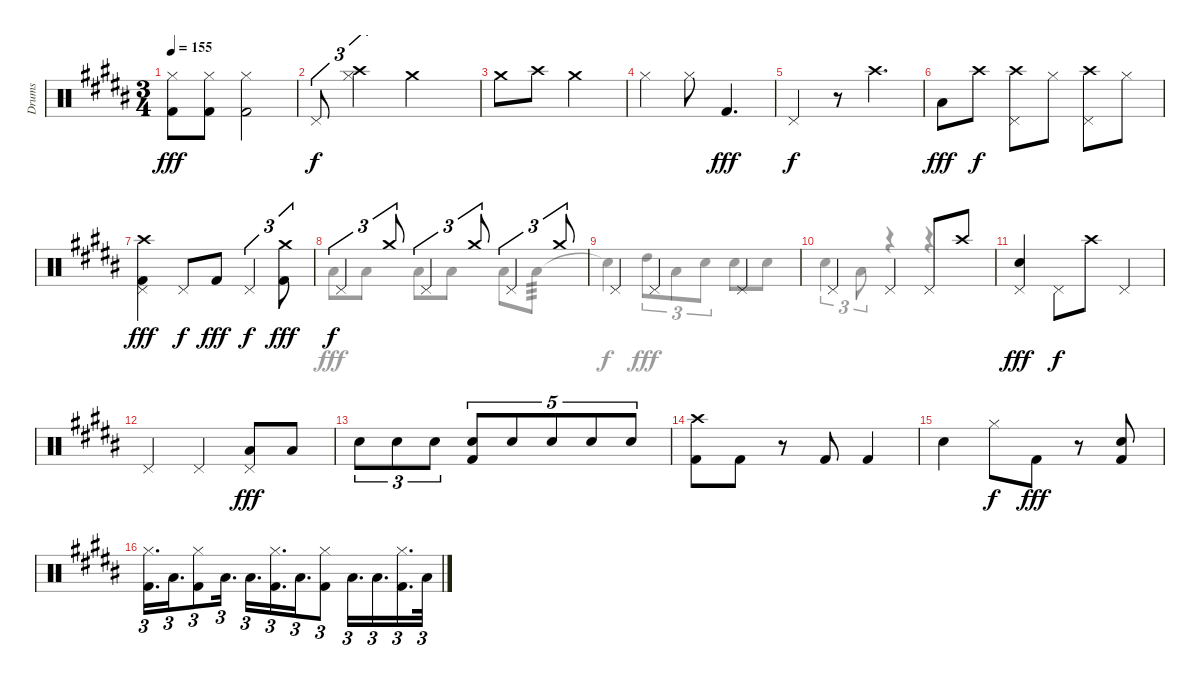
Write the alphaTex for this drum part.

\track ("Drums" "Drums") {instrument percussion}
\staff {score}
\articulation defaults
\voice
\ts (3 4)
\tempo 155
\clef neutral
\ks b
("Hi-Hat (closed)" "Kick (hit) 2").8{dy fff} ("Hi-Hat (closed)" "Kick (hit) 2").8 ("Hi-Hat (closed)" "Kick (hit) 2").2 |
"Pedal Hi-Hat (hit)".8{tu (3 2) dy f} ("Hi-Hat (closed)" "Crash high (hit)").4{tu (3 2)} "Crash medium (hit)".2 |
"Crash medium (hit)".8 "Crash high (hit)".8 "Crash medium (hit)".2 |
"Hi-Hat (closed)".4 "Hi-Hat (closed)".8 "Kick (hit) 2".4{d dy fff} |
"Pedal Hi-Hat (hit)".4{dy f} r.8 "Crash high (hit)".4{d} |
"Low Tom (hit)".8{dy fff} "Crash high (hit)".8{dy f} ("Pedal Hi-Hat (hit)" "Crash high (hit)").8 "Hi-Hat (closed)".8 ("Pedal Hi-Hat (hit)" "Crash high (hit)").8 "Hi-Hat (closed)".8 |
("Pedal Hi-Hat (hit)" "Crash high (hit)" "Kick (hit) 2").4{dy fff} "Pedal Hi-Hat (hit)".8{dy f} "Kick (hit) 2".8{dy fff} "Pedal Hi-Hat (hit)".4{tu (3 2) dy f} ("Crash medium (hit)" "Kick (hit) 2").8{tu (3 2) dy fff} |
"Pedal Hi-Hat (hit)".4{tu (3 2) dy f} "Crash medium (hit)".8{tu (3 2)} "Pedal Hi-Hat (hit)".4{tu (3 2)} "Crash medium (hit)".8{tu (3 2)} "Pedal Hi-Hat (hit)".4{tu (3 2)} "Crash medium (hit)".8{tu (3 2)} |
"Pedal Hi-Hat (hit)".4 "Pedal Hi-Hat (hit)".4 "Pedal Hi-Hat (hit)".4 |
"Pedal Hi-Hat (hit)".4 "Pedal Hi-Hat (hit)".4 "Pedal Hi-Hat (hit)".8 "Crash high (hit)".8 |
("Pedal Hi-Hat (hit)" "Snare (hit) 2").4{dy fff} "Pedal Hi-Hat (hit)".8{dy f} "Crash high (hit)".8 "Pedal Hi-Hat (hit)".4 |
"Pedal Hi-Hat (hit)".4 "Pedal Hi-Hat (hit)".4 ("Pedal Hi-Hat (hit)" "Low Floor Tom (hit)").8{dy fff} "Low Floor Tom (hit)".8 |
"Snare (hit) 2".8{tu (3 2)} "Snare (hit) 2".8{tu (3 2)} "Snare (hit) 2".8{tu (3 2)} ("Snare (hit) 2" "Kick (hit) 2").8{tu (5 4)} "Snare (hit) 2".8{tu (5 4)} "Snare (hit) 2".8{tu (5 4)} "Snare (hit) 2".8{tu (5 4)} "Snare (hit) 2".8{tu (5 4)} |
("Crash high (hit)" "Kick (hit) 2").8 "Kick (hit) 2".8 r.8 "Kick (hit) 2".8 "Kick (hit) 2".4 |
"Snare (hit) 2".4 "Hi-Hat (closed)".8{dy f} "Kick (hit) 2".8{dy fff} r.8 ("Snare (hit) 2" "Kick (hit) 2").8 |
("Hi-Hat (closed)" "Kick (hit) 2").16{d tu (3 2)} "Low Tom (hit)".16{d tu (3 2)} ("Hi-Hat (closed)" "Kick (hit) 2").8{tu (3 2)} "Low Tom (hit)".16{d tu (3 2)} "Low Tom (hit)".16{d tu (3 2)} ("Hi-Hat (closed)" "Kick (hit) 2").16{d tu (3 2)} "Low Tom (hit)".16{d tu (3 2)} ("Hi-Hat (closed)" "Kick (hit) 2").8{tu (3 2)} "Low Tom (hit)".16{d tu (3 2)} "Low Tom (hit)".16{d tu (3 2)} ("Hi-Hat (closed)" "Kick (hit) 2").16{d tu (3 2)} "Low Tom (hit)".32{tu (3 2)}
\voice
\clef neutral
\ottava regular
\simile none
\ks b
|
|
|
|
|
|
|
"Low Tom (hit)".8{dy fff} "Low Tom (hit)".8 "Low Tom (hit)".8 "Low Tom (hit)".8 "Low Tom (hit)".8 "Low Tom (hit)".8{tp 3} |
"Snare (hit)"{t}.4{dy f} "High Tom (hit)".8{tu (3 2) dy fff} "Low Tom (hit)".8{tu (3 2)} "Snare (hit) 2".8{tu (3 2)} "Snare (hit) 2".8 "Snare (hit) 2".8 |
"Snare (hit) 2".4{tu (3 2)} "Low Floor Tom (hit)".8{tu (3 2)} r.4 r.4 |
|
|
|
|
|
